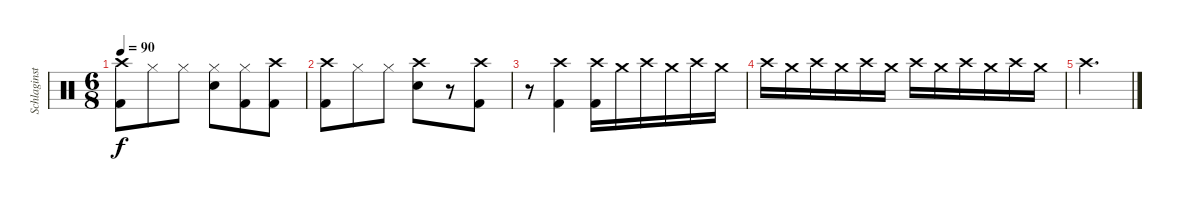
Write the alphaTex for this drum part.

\track ("Schlaginstrumente - Auswahl" "Schlaginst") {instrument percussion}
\staff {score}
\articulation defaults
\ts (6 8)
\tempo 90
\clef neutral
\ks c
("Crash high (hit)" "Kick (hit) 2").8{dy f} "Hi-Hat (closed)".8 "Hi-Hat (closed)".8 ("Hi-Hat (closed)" "Snare (hit) 2").8 ("Hi-Hat (closed)" "Kick (hit) 2").8 ("Crash high (hit)" "Kick (hit) 2").8 |
("Crash high (hit)" "Kick (hit) 2").8 "Hi-Hat (closed)".8 "Hi-Hat (closed)".8 ("Crash high (hit)" "Snare (hit) 2").8 r.8 ("Crash high (hit)" "Kick (hit) 2").8 |
r.8 ("Crash high (hit)" "Kick (hit) 2").4 ("Crash high (hit)" "Kick (hit) 2").16 "Crash medium (hit)".16 "Crash high (hit)".16 "Crash medium (hit)".16 "Crash high (hit)".16 "Crash medium (hit)".16 |
"Crash high (hit)".16 "Crash medium (hit)".16 "Crash high (hit)".16 "Crash medium (hit)".16 "Crash high (hit)".16 "Crash medium (hit)".16 "Crash high (hit)".16 "Crash medium (hit)".16 "Crash high (hit)".16 "Crash medium (hit)".16 "Crash high (hit)".16 "Crash medium (hit)".16 |
"Crash high (hit)".2{d}
